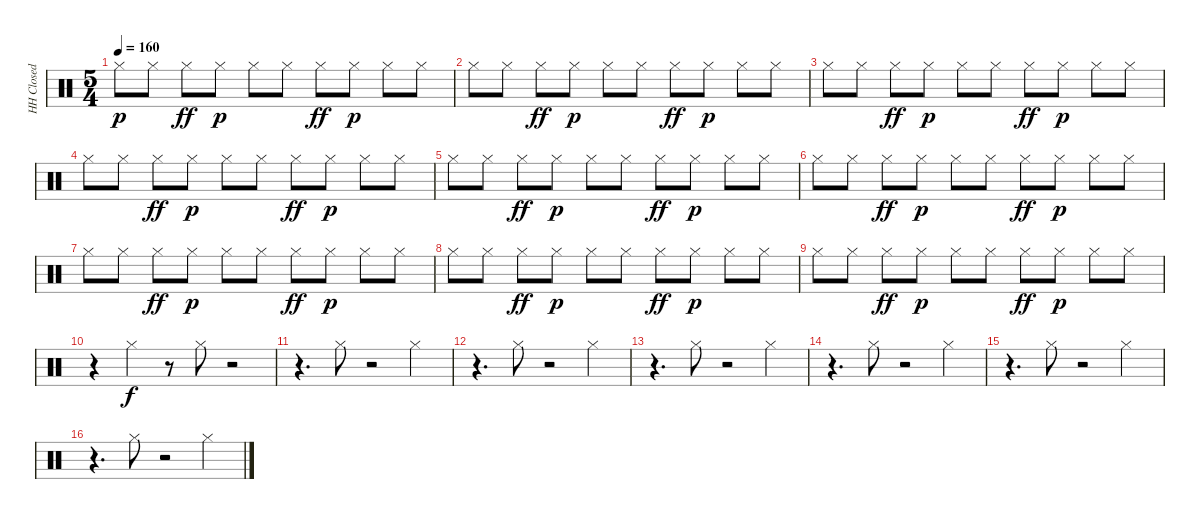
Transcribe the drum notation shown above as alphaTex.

\track ("HH Closed" "HH Closed") {instrument percussion}
\staff {score}
\articulation defaults
\ts (5 4)
\tempo 160
\clef neutral
\ks c "Hi-Hat (closed)".8{dy p} "Hi-Hat (closed)".8 "Hi-Hat (closed)".8{dy ff} "Hi-Hat (closed)".8{dy p} "Hi-Hat (closed)".8 "Hi-Hat (closed)".8 "Hi-Hat (closed)".8{dy ff} "Hi-Hat (closed)".8{dy p} "Hi-Hat (closed)".8 "Hi-Hat (closed)".8
|
"Hi-Hat (closed)".8 "Hi-Hat (closed)".8 "Hi-Hat (closed)".8{dy ff} "Hi-Hat (closed)".8{dy p} "Hi-Hat (closed)".8 "Hi-Hat (closed)".8 "Hi-Hat (closed)".8{dy ff} "Hi-Hat (closed)".8{dy p} "Hi-Hat (closed)".8 "Hi-Hat (closed)".8 |
"Hi-Hat (closed)".8 "Hi-Hat (closed)".8 "Hi-Hat (closed)".8{dy ff} "Hi-Hat (closed)".8{dy p} "Hi-Hat (closed)".8 "Hi-Hat (closed)".8 "Hi-Hat (closed)".8{dy ff} "Hi-Hat (closed)".8{dy p} "Hi-Hat (closed)".8 "Hi-Hat (closed)".8 |
"Hi-Hat (closed)".8 "Hi-Hat (closed)".8 "Hi-Hat (closed)".8{dy ff} "Hi-Hat (closed)".8{dy p} "Hi-Hat (closed)".8 "Hi-Hat (closed)".8 "Hi-Hat (closed)".8{dy ff} "Hi-Hat (closed)".8{dy p} "Hi-Hat (closed)".8 "Hi-Hat (closed)".8 |
"Hi-Hat (closed)".8 "Hi-Hat (closed)".8 "Hi-Hat (closed)".8{dy ff} "Hi-Hat (closed)".8{dy p} "Hi-Hat (closed)".8 "Hi-Hat (closed)".8 "Hi-Hat (closed)".8{dy ff} "Hi-Hat (closed)".8{dy p} "Hi-Hat (closed)".8 "Hi-Hat (closed)".8 |
"Hi-Hat (closed)".8 "Hi-Hat (closed)".8 "Hi-Hat (closed)".8{dy ff} "Hi-Hat (closed)".8{dy p} "Hi-Hat (closed)".8 "Hi-Hat (closed)".8 "Hi-Hat (closed)".8{dy ff} "Hi-Hat (closed)".8{dy p} "Hi-Hat (closed)".8 "Hi-Hat (closed)".8 |
"Hi-Hat (closed)".8 "Hi-Hat (closed)".8 "Hi-Hat (closed)".8{dy ff} "Hi-Hat (closed)".8{dy p} "Hi-Hat (closed)".8 "Hi-Hat (closed)".8 "Hi-Hat (closed)".8{dy ff} "Hi-Hat (closed)".8{dy p} "Hi-Hat (closed)".8 "Hi-Hat (closed)".8 |
"Hi-Hat (closed)".8 "Hi-Hat (closed)".8 "Hi-Hat (closed)".8{dy ff} "Hi-Hat (closed)".8{dy p} "Hi-Hat (closed)".8 "Hi-Hat (closed)".8 "Hi-Hat (closed)".8{dy ff} "Hi-Hat (closed)".8{dy p} "Hi-Hat (closed)".8 "Hi-Hat (closed)".8 |
"Hi-Hat (closed)".8 "Hi-Hat (closed)".8 "Hi-Hat (closed)".8{dy ff} "Hi-Hat (closed)".8{dy p} "Hi-Hat (closed)".8 "Hi-Hat (closed)".8 "Hi-Hat (closed)".8{dy ff} "Hi-Hat (closed)".8{dy p} "Hi-Hat (closed)".8 "Hi-Hat (closed)".8 |
r.4 "Hi-Hat (closed)".4{dy f} r.8 "Hi-Hat (closed)".8 r.2 |
r.4{d} "Hi-Hat (closed)".8 r.2 "Hi-Hat (closed)".4 |
r.4{d} "Hi-Hat (closed)".8 r.2 "Hi-Hat (closed)".4 |
r.4{d} "Hi-Hat (closed)".8 r.2 "Hi-Hat (closed)".4 |
r.4{d} "Hi-Hat (closed)".8 r.2 "Hi-Hat (closed)".4 |
r.4{d} "Hi-Hat (closed)".8 r.2 "Hi-Hat (closed)".4 |
r.4{d} "Hi-Hat (closed)".8 r.2 "Hi-Hat (closed)".4
